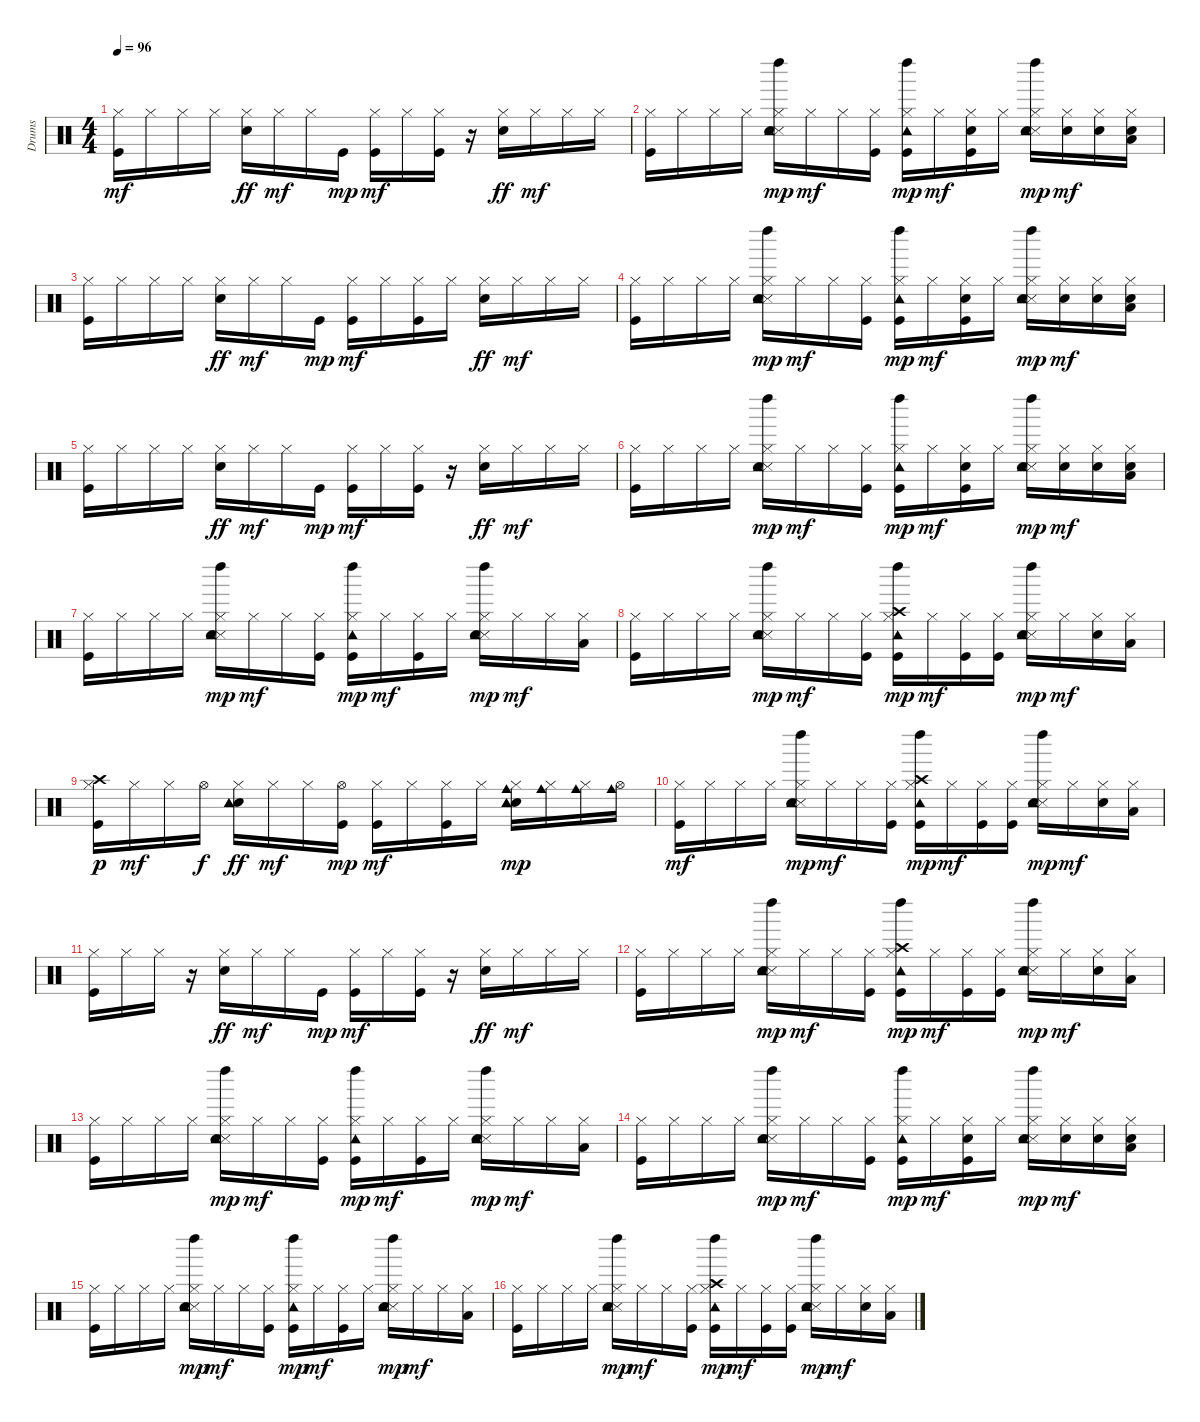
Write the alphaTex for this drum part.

\track ("Drums" "Drums") {instrument percussion}
\staff {score}
\articulation defaults
\ts (4 4)
\tempo 96
\clef neutral
\ks c
("Kick (hit)" "Hi-Hat (closed)").16{dy mf} "Hi-Hat (closed)".16 "Hi-Hat (closed)".16 "Hi-Hat (closed)".16 ("Snare (hit) 2" "Hi-Hat (closed)").16{dy ff} "Hi-Hat (closed)".16{dy mf} "Hi-Hat (closed)".16 "Kick (hit)".16{dy mp} ("Kick (hit)" "Hi-Hat (closed)").16{dy mf} "Hi-Hat (closed)".16 ("Kick (hit)" "Hi-Hat (closed)").16 r.16 ("Snare (hit) 2" "Hi-Hat (closed)").16{dy ff} "Hi-Hat (closed)".16{dy mf} "Hi-Hat (closed)".16 "Hi-Hat (closed)".16 |
("Kick (hit)" "Hi-Hat (closed)").16 "Hi-Hat (closed)".16 "Hi-Hat (closed)".16 "Hi-Hat (closed)".16 ("Snare (side stick) 3" "Snare (hit) 2" "Hi-Hat (closed)" "Tambourine (hit)" "Left Maraca (hit)").16{dy mp} "Hi-Hat (closed)".16{dy mf} "Hi-Hat (closed)".16 ("Kick (hit)" "Hi-Hat (closed)").16 ("Kick (hit)" "Hi-Hat (closed)" "Tambourine (hit)" "Left Maraca (hit)").16{dy mp} "Hi-Hat (closed)".16{dy mf} ("Kick (hit)" "Snare (hit) 2" "Hi-Hat (closed)").16 "Hi-Hat (closed)".16 ("Snare (side stick) 3" "Snare (hit) 2" "Hi-Hat (closed)" "Tambourine (hit)" "Left Maraca (hit)").16{dy mp} ("Snare (hit) 2" "Hi-Hat (closed)").16{dy mf} ("Snare (hit) 2" "Hi-Hat (closed)").16 ("Snare (hit) 2" "Low Floor Tom (hit)" "Hi-Hat (closed)").16 |
("Kick (hit)" "Hi-Hat (closed)").16 "Hi-Hat (closed)".16 "Hi-Hat (closed)".16 "Hi-Hat (closed)".16 ("Snare (hit) 2" "Hi-Hat (closed)").16{dy ff} "Hi-Hat (closed)".16{dy mf} "Hi-Hat (closed)".16 "Kick (hit)".16{dy mp} ("Kick (hit)" "Hi-Hat (closed)").16{dy mf} "Hi-Hat (closed)".16 ("Kick (hit)" "Hi-Hat (closed)").16 "Hi-Hat (closed)".16 ("Snare (hit) 2" "Hi-Hat (closed)").16{dy ff} "Hi-Hat (closed)".16{dy mf} "Hi-Hat (closed)".16 "Hi-Hat (closed)".16 |
("Kick (hit)" "Hi-Hat (closed)").16 "Hi-Hat (closed)".16 "Hi-Hat (closed)".16 "Hi-Hat (closed)".16 ("Snare (side stick) 3" "Snare (hit) 2" "Hi-Hat (closed)" "Tambourine (hit)" "Left Maraca (hit)").16{dy mp} "Hi-Hat (closed)".16{dy mf} "Hi-Hat (closed)".16 ("Kick (hit)" "Hi-Hat (closed)").16 ("Kick (hit)" "Hi-Hat (closed)" "Tambourine (hit)" "Left Maraca (hit)").16{dy mp} "Hi-Hat (closed)".16{dy mf} ("Kick (hit)" "Snare (hit) 2" "Hi-Hat (closed)").16 "Hi-Hat (closed)".16 ("Snare (side stick) 3" "Snare (hit) 2" "Hi-Hat (closed)" "Tambourine (hit)" "Left Maraca (hit)").16{dy mp} ("Snare (hit) 2" "Hi-Hat (closed)").16{dy mf} ("Snare (hit) 2" "Hi-Hat (closed)").16 ("Snare (hit) 2" "Low Floor Tom (hit)" "Hi-Hat (closed)").16 |
("Kick (hit)" "Hi-Hat (closed)").16 "Hi-Hat (closed)".16 "Hi-Hat (closed)".16 "Hi-Hat (closed)".16 ("Snare (hit) 2" "Hi-Hat (closed)").16{dy ff} "Hi-Hat (closed)".16{dy mf} "Hi-Hat (closed)".16 "Kick (hit)".16{dy mp} ("Kick (hit)" "Hi-Hat (closed)").16{dy mf} "Hi-Hat (closed)".16 ("Kick (hit)" "Hi-Hat (closed)").16 r.16 ("Snare (hit) 2" "Hi-Hat (closed)").16{dy ff} "Hi-Hat (closed)".16{dy mf} "Hi-Hat (closed)".16 "Hi-Hat (closed)".16 |
("Kick (hit)" "Hi-Hat (closed)").16 "Hi-Hat (closed)".16 "Hi-Hat (closed)".16 "Hi-Hat (closed)".16 ("Snare (side stick) 3" "Snare (hit) 2" "Hi-Hat (closed)" "Tambourine (hit)" "Left Maraca (hit)").16{dy mp} "Hi-Hat (closed)".16{dy mf} "Hi-Hat (closed)".16 ("Kick (hit)" "Hi-Hat (closed)").16 ("Kick (hit)" "Hi-Hat (closed)" "Tambourine (hit)" "Left Maraca (hit)").16{dy mp} "Hi-Hat (closed)".16{dy mf} ("Kick (hit)" "Snare (hit) 2" "Hi-Hat (closed)").16 "Hi-Hat (closed)".16 ("Snare (side stick) 3" "Snare (hit) 2" "Hi-Hat (closed)" "Tambourine (hit)" "Left Maraca (hit)").16{dy mp} ("Snare (hit) 2" "Hi-Hat (closed)").16{dy mf} ("Snare (hit) 2" "Hi-Hat (closed)").16 ("Snare (hit) 2" "Low Floor Tom (hit)" "Hi-Hat (closed)").16 |
("Kick (hit)" "Hi-Hat (closed)").16 "Hi-Hat (closed)".16 "Hi-Hat (closed)".16 "Hi-Hat (closed)".16 ("Snare (side stick) 3" "Snare (hit) 2" "Hi-Hat (closed)" "Tambourine (hit)" "Left Maraca (hit)").16{dy mp} "Hi-Hat (closed)".16{dy mf} "Hi-Hat (closed)".16 ("Kick (hit)" "Hi-Hat (closed)").16 ("Kick (hit)" "Hi-Hat (closed)" "Tambourine (hit)" "Left Maraca (hit)").16{dy mp} "Hi-Hat (closed)".16{dy mf} ("Kick (hit)" "Hi-Hat (closed)").16 "Hi-Hat (closed)".16 ("Snare (side stick) 3" "Snare (hit) 2" "Hi-Hat (closed)" "Tambourine (hit)" "Left Maraca (hit)").16{dy mp} "Hi-Hat (closed)".16{dy mf} "Hi-Hat (closed)".16 ("Low Floor Tom (hit)" "Hi-Hat (closed)").16 |
("Kick (hit)" "Hi-Hat (closed)").16 "Hi-Hat (closed)".16 "Hi-Hat (closed)".16 "Hi-Hat (closed)".16 ("Snare (side stick) 3" "Snare (hit) 2" "Hi-Hat (closed)" "Tambourine (hit)" "Left Maraca (hit)").16{dy mp} "Hi-Hat (closed)".16{dy mf} "Hi-Hat (closed)".16 ("Kick (hit)" "Hi-Hat (closed)").16 ("Kick (hit)" "Hi-Hat (closed)" "Crash high (hit)" "Tambourine (hit)" "Left Maraca (hit)").16{dy mp} "Hi-Hat (closed)".16{dy mf} ("Kick (hit)" "Hi-Hat (closed)").16 ("Kick (hit)" "Hi-Hat (closed)").16 ("Snare (side stick) 3" "Snare (hit) 2" "Hi-Hat (closed)" "Tambourine (hit)" "Left Maraca (hit)").16{dy mp} "Hi-Hat (closed)".16{dy mf} ("Snare (hit) 2" "Hi-Hat (closed)").16 ("Low Floor Tom (hit)" "Hi-Hat (closed)").16 |
("Kick (hit)" "Hi-Hat (closed)" "Crash high (hit)").16{dy p} "Hi-Hat (closed)".16{dy mf} "Hi-Hat (closed)".16 "Hi-Hat (open)".16{dy f} ("Snare (hit) 2" "Hi-Hat (closed)" "Tambourine (hit)" "Tambourine (hit)").16{dy ff} "Hi-Hat (closed)".16{dy mf} "Hi-Hat (closed)".16 ("Kick (hit)" "Hi-Hat (open)").16{dy mp} ("Kick (hit)" "Hi-Hat (closed)").16{dy mf} "Hi-Hat (closed)".16 ("Kick (hit)" "Hi-Hat (closed)").16 "Hi-Hat (closed)".16 ("Snare (hit) 2" "Hi-Hat (closed)" "Tambourine (hit)" "Tambourine (hit)" "Cowbell medium (hit)").16{dy mp} ("Hi-Hat (closed)" "Cowbell medium (hit)").16 ("Hi-Hat (closed)" "Cowbell medium (hit)").16 ("Hi-Hat (open)" "Cowbell medium (hit)").16 |
("Kick (hit)" "Hi-Hat (closed)").16{dy mf} "Hi-Hat (closed)".16 "Hi-Hat (closed)".16 "Hi-Hat (closed)".16 ("Snare (side stick) 3" "Snare (hit) 2" "Hi-Hat (closed)" "Tambourine (hit)" "Left Maraca (hit)").16{dy mp} "Hi-Hat (closed)".16{dy mf} "Hi-Hat (closed)".16 ("Kick (hit)" "Hi-Hat (closed)").16 ("Kick (hit)" "Hi-Hat (closed)" "Crash high (hit)" "Tambourine (hit)" "Left Maraca (hit)").16{dy mp} "Hi-Hat (closed)".16{dy mf} ("Kick (hit)" "Hi-Hat (closed)").16 ("Kick (hit)" "Hi-Hat (closed)").16 ("Snare (side stick) 3" "Snare (hit) 2" "Hi-Hat (closed)" "Tambourine (hit)" "Left Maraca (hit)").16{dy mp} "Hi-Hat (closed)".16{dy mf} ("Snare (hit) 2" "Hi-Hat (closed)").16 ("Low Floor Tom (hit)" "Hi-Hat (closed)").16 |
("Kick (hit)" "Hi-Hat (closed)").16 "Hi-Hat (closed)".16 "Hi-Hat (closed)".16 r.16 ("Snare (hit) 2" "Hi-Hat (closed)").16{dy ff} "Hi-Hat (closed)".16{dy mf} "Hi-Hat (closed)".16 "Kick (hit)".16{dy mp} ("Kick (hit)" "Hi-Hat (closed)").16{dy mf} "Hi-Hat (closed)".16 ("Kick (hit)" "Hi-Hat (closed)").16 r.16 ("Snare (hit) 2" "Hi-Hat (closed)").16{dy ff} "Hi-Hat (closed)".16{dy mf} "Hi-Hat (closed)".16 "Hi-Hat (closed)".16 |
("Kick (hit)" "Hi-Hat (closed)").16 "Hi-Hat (closed)".16 "Hi-Hat (closed)".16 "Hi-Hat (closed)".16 ("Snare (side stick) 3" "Snare (hit) 2" "Hi-Hat (closed)" "Tambourine (hit)" "Left Maraca (hit)").16{dy mp} "Hi-Hat (closed)".16{dy mf} "Hi-Hat (closed)".16 ("Kick (hit)" "Hi-Hat (closed)").16 ("Kick (hit)" "Hi-Hat (closed)" "Crash high (hit)" "Tambourine (hit)" "Left Maraca (hit)").16{dy mp} "Hi-Hat (closed)".16{dy mf} ("Kick (hit)" "Hi-Hat (closed)").16 ("Kick (hit)" "Hi-Hat (closed)").16 ("Snare (side stick) 3" "Snare (hit) 2" "Hi-Hat (closed)" "Tambourine (hit)" "Left Maraca (hit)").16{dy mp} "Hi-Hat (closed)".16{dy mf} ("Snare (hit) 2" "Hi-Hat (closed)").16 ("Low Floor Tom (hit)" "Hi-Hat (closed)").16 |
("Kick (hit)" "Hi-Hat (closed)").16 "Hi-Hat (closed)".16 "Hi-Hat (closed)".16 "Hi-Hat (closed)".16 ("Snare (side stick) 3" "Snare (hit) 2" "Hi-Hat (closed)" "Tambourine (hit)" "Left Maraca (hit)").16{dy mp} "Hi-Hat (closed)".16{dy mf} "Hi-Hat (closed)".16 ("Kick (hit)" "Hi-Hat (closed)").16 ("Kick (hit)" "Hi-Hat (closed)" "Tambourine (hit)" "Left Maraca (hit)").16{dy mp} "Hi-Hat (closed)".16{dy mf} ("Kick (hit)" "Hi-Hat (closed)").16 "Hi-Hat (closed)".16 ("Snare (side stick) 3" "Snare (hit) 2" "Hi-Hat (closed)" "Tambourine (hit)" "Left Maraca (hit)").16{dy mp} "Hi-Hat (closed)".16{dy mf} "Hi-Hat (closed)".16 ("Low Floor Tom (hit)" "Hi-Hat (closed)").16 |
("Kick (hit)" "Hi-Hat (closed)").16 "Hi-Hat (closed)".16 "Hi-Hat (closed)".16 "Hi-Hat (closed)".16 ("Snare (side stick) 3" "Snare (hit) 2" "Hi-Hat (closed)" "Tambourine (hit)" "Left Maraca (hit)").16{dy mp} "Hi-Hat (closed)".16{dy mf} "Hi-Hat (closed)".16 ("Kick (hit)" "Hi-Hat (closed)").16 ("Kick (hit)" "Hi-Hat (closed)" "Tambourine (hit)" "Left Maraca (hit)").16{dy mp} "Hi-Hat (closed)".16{dy mf} ("Kick (hit)" "Snare (hit) 2" "Hi-Hat (closed)").16 "Hi-Hat (closed)".16 ("Snare (side stick) 3" "Snare (hit) 2" "Hi-Hat (closed)" "Tambourine (hit)" "Left Maraca (hit)").16{dy mp} ("Snare (hit) 2" "Hi-Hat (closed)").16{dy mf} ("Snare (hit) 2" "Hi-Hat (closed)").16 ("Snare (hit) 2" "Low Floor Tom (hit)" "Hi-Hat (closed)").16 |
("Kick (hit)" "Hi-Hat (closed)").16 "Hi-Hat (closed)".16 "Hi-Hat (closed)".16 "Hi-Hat (closed)".16 ("Snare (side stick) 3" "Snare (hit) 2" "Hi-Hat (closed)" "Tambourine (hit)" "Left Maraca (hit)").16{dy mp} "Hi-Hat (closed)".16{dy mf} "Hi-Hat (closed)".16 ("Kick (hit)" "Hi-Hat (closed)").16 ("Kick (hit)" "Hi-Hat (closed)" "Tambourine (hit)" "Left Maraca (hit)").16{dy mp} "Hi-Hat (closed)".16{dy mf} ("Kick (hit)" "Hi-Hat (closed)").16 "Hi-Hat (closed)".16 ("Snare (side stick) 3" "Snare (hit) 2" "Hi-Hat (closed)" "Tambourine (hit)" "Left Maraca (hit)").16{dy mp} "Hi-Hat (closed)".16{dy mf} "Hi-Hat (closed)".16 ("Low Floor Tom (hit)" "Hi-Hat (closed)").16 |
("Kick (hit)" "Hi-Hat (closed)").16 "Hi-Hat (closed)".16 "Hi-Hat (closed)".16 "Hi-Hat (closed)".16 ("Snare (side stick) 3" "Snare (hit) 2" "Hi-Hat (closed)" "Tambourine (hit)" "Left Maraca (hit)").16{dy mp} "Hi-Hat (closed)".16{dy mf} "Hi-Hat (closed)".16 ("Kick (hit)" "Hi-Hat (closed)").16 ("Kick (hit)" "Hi-Hat (closed)" "Crash high (hit)" "Tambourine (hit)" "Left Maraca (hit)").16{dy mp} "Hi-Hat (closed)".16{dy mf} ("Kick (hit)" "Hi-Hat (closed)").16 ("Kick (hit)" "Hi-Hat (closed)").16 ("Snare (side stick) 3" "Snare (hit) 2" "Hi-Hat (closed)" "Tambourine (hit)" "Left Maraca (hit)").16{dy mp} "Hi-Hat (closed)".16{dy mf} ("Snare (hit) 2" "Hi-Hat (closed)").16 ("Low Floor Tom (hit)" "Hi-Hat (closed)").16
